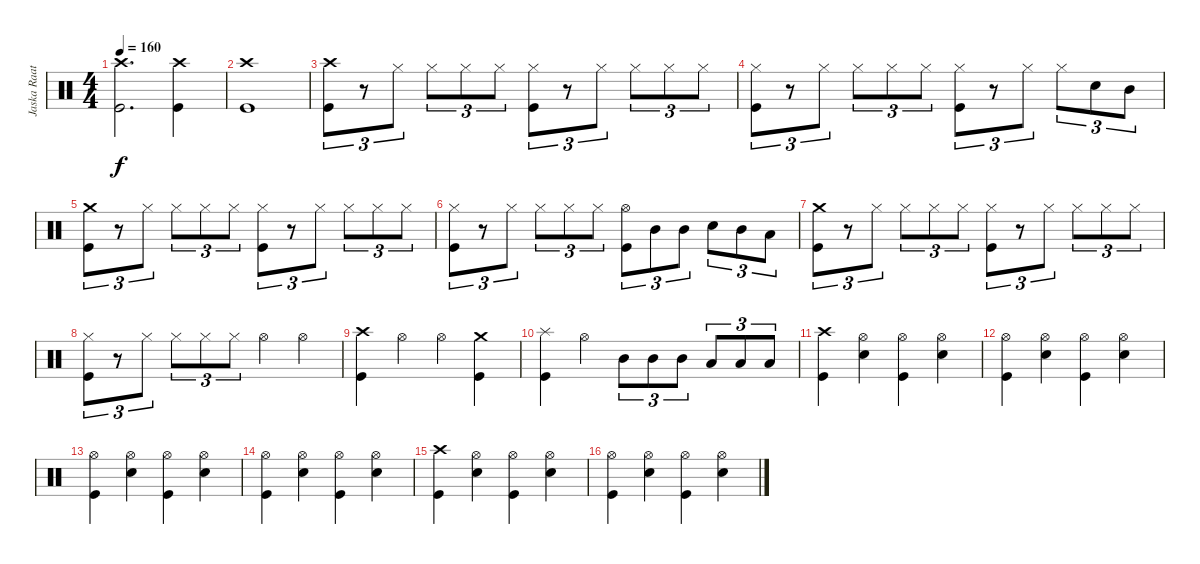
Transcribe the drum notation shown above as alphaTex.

\track ("Jaska Raatikainen" "Jaska Raat") {instrument percussion}
\staff {score}
\articulation defaults
\ts (4 4)
\tempo 160
\clef neutral
\ks c
("Crash high (hit)" "Kick (hit)").2{d dy f} ("Crash high (hit)" "Kick (hit)").4 |
("Crash high (hit)" "Kick (hit)").1 |
("Crash high (hit)" "Kick (hit)").8{tu (3 2)} r.8{tu (3 2)} "Hi-Hat (closed)".8{tu (3 2)} "Hi-Hat (closed)".8{tu (3 2)} "Hi-Hat (closed)".8{tu (3 2)} "Hi-Hat (closed)".8{tu (3 2)} ("Hi-Hat (closed)" "Kick (hit)").8{tu (3 2)} r.8{tu (3 2)} "Hi-Hat (closed)".8{tu (3 2)} "Hi-Hat (closed)".8{tu (3 2)} "Hi-Hat (closed)".8{tu (3 2)} "Hi-Hat (closed)".8{tu (3 2)} |
("Hi-Hat (closed)" "Kick (hit)").8{tu (3 2)} r.8{tu (3 2)} "Hi-Hat (closed)".8{tu (3 2)} "Hi-Hat (closed)".8{tu (3 2)} "Hi-Hat (closed)".8{tu (3 2)} "Hi-Hat (closed)".8{tu (3 2)} ("Hi-Hat (closed)" "Kick (hit)").8{tu (3 2)} r.8{tu (3 2)} "Hi-Hat (closed)".8{tu (3 2)} "Hi-Hat (closed)".8{tu (3 2)} "Electric Snare (hit)".8{tu (3 2)} "Mid Tom (hit)".8{tu (3 2)} |
("Crash medium (hit)" "Kick (hit)").8{tu (3 2)} r.8{tu (3 2)} "Hi-Hat (closed)".8{tu (3 2)} "Hi-Hat (closed)".8{tu (3 2)} "Hi-Hat (closed)".8{tu (3 2)} "Hi-Hat (closed)".8{tu (3 2)} ("Hi-Hat (closed)" "Kick (hit)").8{tu (3 2)} r.8{tu (3 2)} "Hi-Hat (closed)".8{tu (3 2)} "Hi-Hat (closed)".8{tu (3 2)} "Hi-Hat (closed)".8{tu (3 2)} "Hi-Hat (closed)".8{tu (3 2)} |
("Hi-Hat (closed)" "Kick (hit)").8{tu (3 2)} r.8{tu (3 2)} "Hi-Hat (closed)".8{tu (3 2)} "Hi-Hat (closed)".8{tu (3 2)} "Hi-Hat (closed)".8{tu (3 2)} "Hi-Hat (closed)".8{tu (3 2)} ("Hi-Hat (open)" "Kick (hit)").8{tu (3 2)} "Mid Tom (hit)".8{tu (3 2)} "Mid Tom (hit)".8{tu (3 2)} "Electric Snare (hit)".8{tu (3 2)} "Mid Tom (hit)".8{tu (3 2)} "Low Tom (hit)".8{tu (3 2)} |
("Crash medium (hit)" "Kick (hit)").8{tu (3 2)} r.8{tu (3 2)} "Hi-Hat (closed)".8{tu (3 2)} "Hi-Hat (closed)".8{tu (3 2)} "Hi-Hat (closed)".8{tu (3 2)} "Hi-Hat (closed)".8{tu (3 2)} ("Hi-Hat (closed)" "Kick (hit)").8{tu (3 2)} r.8{tu (3 2)} "Hi-Hat (closed)".8{tu (3 2)} "Hi-Hat (closed)".8{tu (3 2)} "Hi-Hat (closed)".8{tu (3 2)} "Hi-Hat (closed)".8{tu (3 2)} |
("Hi-Hat (closed)" "Kick (hit)").8{tu (3 2)} r.8{tu (3 2)} "Hi-Hat (closed)".8{tu (3 2)} "Hi-Hat (closed)".8{tu (3 2)} "Hi-Hat (closed)".8{tu (3 2)} "Hi-Hat (closed)".8{tu (3 2)} "Hi-Hat (open)".4 "Hi-Hat (open)".4 |
("Crash high (hit)" "Kick (hit)").4 "Hi-Hat (open)".4 "Hi-Hat (open)".4 ("Crash medium (hit)" "Kick (hit)").4 |
("Splash (hit)" "Kick (hit)").4 "Hi-Hat (open)".4 "Mid Tom (hit)".8{tu (3 2)} "Mid Tom (hit)".8{tu (3 2)} "Mid Tom (hit)".8{tu (3 2)} "Low Tom (hit)".8{tu (3 2)} "Low Tom (hit)".8{tu (3 2)} "Low Tom (hit)".8{tu (3 2)} |
("Crash high (hit)" "Kick (hit)").4 ("Hi-Hat (open)" "Electric Snare (hit)").4 ("Hi-Hat (open)" "Kick (hit)").4 ("Hi-Hat (open)" "Electric Snare (hit)").4 |
("Hi-Hat (open)" "Kick (hit)").4 ("Hi-Hat (open)" "Electric Snare (hit)").4 ("Hi-Hat (open)" "Kick (hit)").4 ("Hi-Hat (open)" "Electric Snare (hit)").4 |
("Hi-Hat (open)" "Kick (hit)").4 ("Hi-Hat (open)" "Electric Snare (hit)").4 ("Hi-Hat (open)" "Kick (hit)").4 ("Hi-Hat (open)" "Electric Snare (hit)").4 |
("Hi-Hat (open)" "Kick (hit)").4 ("Hi-Hat (open)" "Electric Snare (hit)").4 ("Hi-Hat (open)" "Kick (hit)").4 ("Hi-Hat (open)" "Electric Snare (hit)").4 |
("Crash high (hit)" "Kick (hit)").4 ("Hi-Hat (open)" "Electric Snare (hit)").4 ("Hi-Hat (open)" "Kick (hit)").4 ("Hi-Hat (open)" "Electric Snare (hit)").4 |
("Hi-Hat (open)" "Kick (hit)").4 ("Hi-Hat (open)" "Electric Snare (hit)").4 ("Hi-Hat (open)" "Kick (hit)").4 ("Hi-Hat (open)" "Electric Snare (hit)").4
